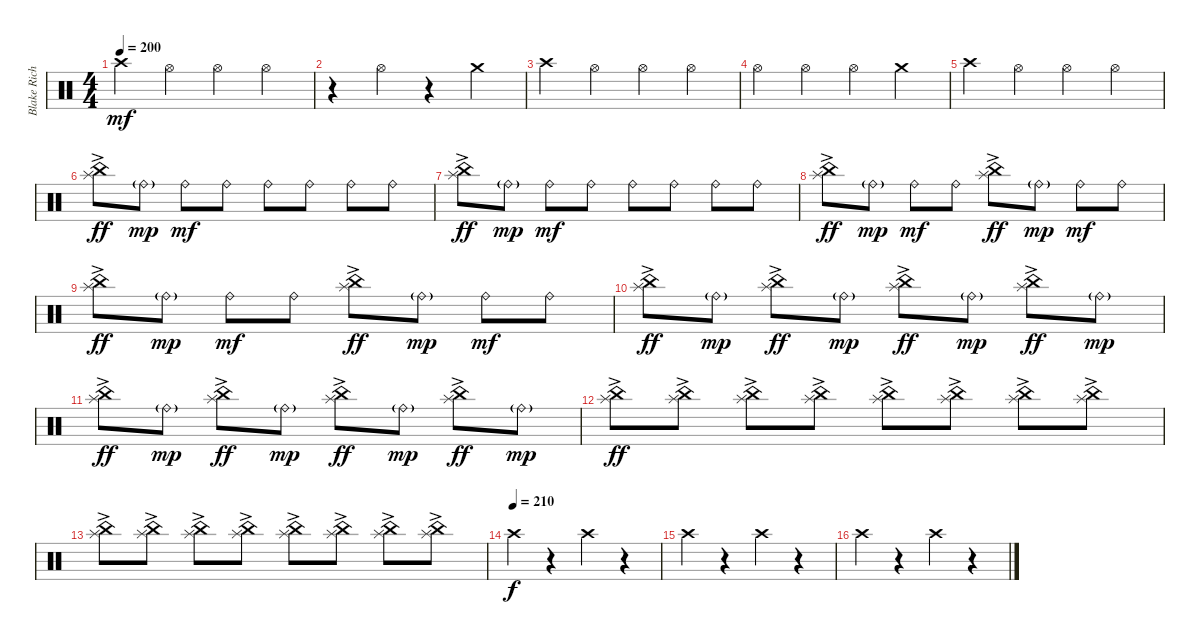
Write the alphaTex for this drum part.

\track ("Blake Richardson Drums" "Blake Rich") {instrument percussion}
\staff {score}
\articulation defaults
\ts (4 4)
\tempo 200
\clef neutral
\ks c "Crash high (hit)".4{dy mf} "Hi-Hat (open)".4 "Hi-Hat (open)".4 "Hi-Hat (open)".4
|
r.4 "Hi-Hat (open)".4 r.4 "Crash medium (hit)".4 |
"Crash high (hit)".4 "Hi-Hat (open)".4 "Hi-Hat (open)".4 "Hi-Hat (open)".4 |
"Hi-Hat (open)".4 "Hi-Hat (open)".4 "Hi-Hat (open)".4 "Crash medium (hit)".4 |
"Crash high (hit)".4 "Hi-Hat (open)".4 "Hi-Hat (open)".4 "Hi-Hat (open)".4 |
("China (hit)" "Splash (hit)"{ac}).8{dy ff} "Ride (bell)"{g}.8{dy mp} "Ride (bell)".8{dy mf} "Ride (bell)".8 "Ride (bell)".8 "Ride (bell)".8 "Ride (bell)".8 "Ride (bell)".8 |
("China (hit)" "Splash (hit)"{ac}).8{dy ff} "Ride (bell)"{g}.8{dy mp} "Ride (bell)".8{dy mf} "Ride (bell)".8 "Ride (bell)".8 "Ride (bell)".8 "Ride (bell)".8 "Ride (bell)".8 |
("China (hit)" "Splash (hit)"{ac}).8{dy ff} "Ride (bell)"{g}.8{dy mp} "Ride (bell)".8{dy mf} "Ride (bell)".8 ("China (hit)" "Splash (hit)"{ac}).8{dy ff} "Ride (bell)"{g}.8{dy mp} "Ride (bell)".8{dy mf} "Ride (bell)".8 |
("China (hit)" "Splash (hit)"{ac}).8{dy ff} "Ride (bell)"{g}.8{dy mp} "Ride (bell)".8{dy mf} "Ride (bell)".8 ("China (hit)" "Splash (hit)"{ac}).8{dy ff} "Ride (bell)"{g}.8{dy mp} "Ride (bell)".8{dy mf} "Ride (bell)".8 |
("China (hit)" "Splash (hit)"{ac}).8{dy ff} "Ride (bell)"{g}.8{dy mp} ("China (hit)" "Splash (hit)"{ac}).8{dy ff} "Ride (bell)"{g}.8{dy mp} ("China (hit)" "Splash (hit)"{ac}).8{dy ff} "Ride (bell)"{g}.8{dy mp} ("China (hit)" "Splash (hit)"{ac}).8{dy ff} "Ride (bell)"{g}.8{dy mp} |
("China (hit)" "Splash (hit)"{ac}).8{dy ff} "Ride (bell)"{g}.8{dy mp} ("China (hit)" "Splash (hit)"{ac}).8{dy ff} "Ride (bell)"{g}.8{dy mp} ("China (hit)" "Splash (hit)"{ac}).8{dy ff} "Ride (bell)"{g}.8{dy mp} ("China (hit)" "Splash (hit)"{ac}).8{dy ff} "Ride (bell)"{g}.8{dy mp} |
("China (hit)" "Splash (hit)"{ac}).8{dy ff} ("China (hit)" "Splash (hit)"{ac}).8 ("China (hit)" "Splash (hit)"{ac}).8 ("China (hit)" "Splash (hit)"{ac}).8 ("China (hit)" "Splash (hit)"{ac}).8 ("China (hit)" "Splash (hit)"{ac}).8 ("China (hit)" "Splash (hit)"{ac}).8 ("China (hit)" "Splash (hit)"{ac}).8 |
("China (hit)" "Splash (hit)"{ac}).8 ("China (hit)" "Splash (hit)"{ac}).8 ("China (hit)" "Splash (hit)"{ac}).8 ("China (hit)" "Splash (hit)"{ac}).8 ("China (hit)" "Splash (hit)"{ac}).8 ("China (hit)" "Splash (hit)"{ac}).8 ("China (hit)" "Splash (hit)"{ac}).8 ("China (hit)" "Splash (hit)"{ac}).8 |
\tempo (210)
"Crash high (hit)".4{dy f} r.4 "Crash high (hit)".4 r.4 |
"Crash high (hit)".4 r.4 "Crash high (hit)".4 r.4 |
"Crash high (hit)".4 r.4 "Crash high (hit)".4 r.4
